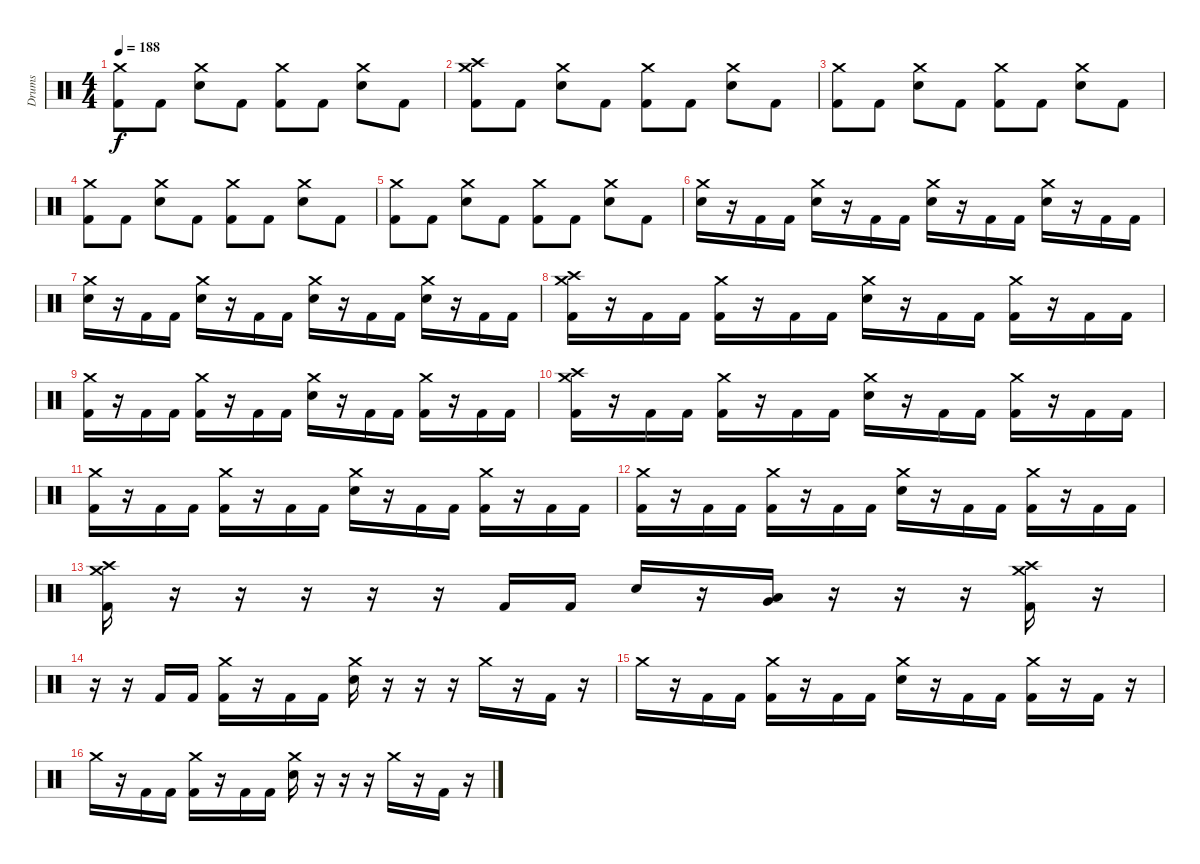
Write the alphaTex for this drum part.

\track ("Drums" "Drums") {instrument percussion}
\staff {score}
\articulation defaults
\ts (4 4)
\tempo 188
\clef neutral
\ks c
("Crash medium (hit)" "Kick (hit) 2").8{dy f} "Kick (hit) 2".8 ("Crash medium (hit)" "Snare (hit) 2").8 "Kick (hit) 2".8 ("Crash medium (hit)" "Kick (hit) 2").8 "Kick (hit) 2".8 ("Crash medium (hit)" "Snare (hit) 2").8 "Kick (hit) 2".8 |
("Crash medium (hit)" "Crash high (hit)" "Kick (hit) 2").8 "Kick (hit) 2".8 ("Crash medium (hit)" "Snare (hit) 2").8 "Kick (hit) 2".8 ("Crash medium (hit)" "Kick (hit) 2").8 "Kick (hit) 2".8 ("Crash medium (hit)" "Snare (hit) 2").8 "Kick (hit) 2".8 |
("Crash medium (hit)" "Kick (hit) 2").8 "Kick (hit) 2".8 ("Crash medium (hit)" "Snare (hit) 2").8 "Kick (hit) 2".8 ("Crash medium (hit)" "Kick (hit) 2").8 "Kick (hit) 2".8 ("Crash medium (hit)" "Snare (hit) 2").8 "Kick (hit) 2".8 |
("Crash medium (hit)" "Kick (hit) 2").8 "Kick (hit) 2".8 ("Crash medium (hit)" "Snare (hit) 2").8 "Kick (hit) 2".8 ("Crash medium (hit)" "Kick (hit) 2").8 "Kick (hit) 2".8 ("Crash medium (hit)" "Snare (hit) 2").8 "Kick (hit) 2".8 |
("Crash medium (hit)" "Kick (hit) 2").8 "Kick (hit) 2".8 ("Crash medium (hit)" "Snare (hit) 2").8 "Kick (hit) 2".8 ("Crash medium (hit)" "Kick (hit) 2").8 "Kick (hit) 2".8 ("Crash medium (hit)" "Snare (hit) 2").8 "Kick (hit) 2".8 |
("Crash medium (hit)" "Snare (hit) 2").16 r.16 "Kick (hit) 2".16 "Kick (hit) 2".16 ("Crash medium (hit)" "Snare (hit) 2").16 r.16 "Kick (hit) 2".16 "Kick (hit) 2".16 ("Crash medium (hit)" "Snare (hit) 2").16 r.16 "Kick (hit) 2".16 "Kick (hit) 2".16 ("Crash medium (hit)" "Snare (hit) 2").16 r.16 "Kick (hit) 2".16 "Kick (hit) 2".16 |
("Crash medium (hit)" "Snare (hit) 2").16 r.16 "Kick (hit) 2".16 "Kick (hit) 2".16 ("Crash medium (hit)" "Snare (hit) 2").16 r.16 "Kick (hit) 2".16 "Kick (hit) 2".16 ("Crash medium (hit)" "Snare (hit) 2").16 r.16 "Kick (hit) 2".16 "Kick (hit) 2".16 ("Crash medium (hit)" "Snare (hit) 2").16 r.16 "Kick (hit) 2".16 "Kick (hit) 2".16 |
("Crash medium (hit)" "Crash high (hit)" "Kick (hit) 2").16 r.16 "Kick (hit) 2".16 "Kick (hit) 2".16 ("Crash medium (hit)" "Kick (hit) 2").16 r.16 "Kick (hit) 2".16 "Kick (hit) 2".16 ("Crash medium (hit)" "Snare (hit) 2").16 r.16 "Kick (hit) 2".16 "Kick (hit) 2".16 ("Crash medium (hit)" "Kick (hit) 2").16 r.16 "Kick (hit) 2".16 "Kick (hit) 2".16 |
("Crash medium (hit)" "Kick (hit) 2").16 r.16 "Kick (hit) 2".16 "Kick (hit) 2".16 ("Crash medium (hit)" "Kick (hit) 2").16 r.16 "Kick (hit) 2".16 "Kick (hit) 2".16 ("Crash medium (hit)" "Snare (hit) 2").16 r.16 "Kick (hit) 2".16 "Kick (hit) 2".16 ("Crash medium (hit)" "Kick (hit) 2").16 r.16 "Kick (hit) 2".16 "Kick (hit) 2".16 |
("Crash medium (hit)" "Crash high (hit)" "Kick (hit) 2").16 r.16 "Kick (hit) 2".16 "Kick (hit) 2".16 ("Crash medium (hit)" "Kick (hit) 2").16 r.16 "Kick (hit) 2".16 "Kick (hit) 2".16 ("Crash medium (hit)" "Snare (hit) 2").16 r.16 "Kick (hit) 2".16 "Kick (hit) 2".16 ("Crash medium (hit)" "Kick (hit) 2").16 r.16 "Kick (hit) 2".16 "Kick (hit) 2".16 |
("Crash medium (hit)" "Kick (hit) 2").16 r.16 "Kick (hit) 2".16 "Kick (hit) 2".16 ("Crash medium (hit)" "Kick (hit) 2").16 r.16 "Kick (hit) 2".16 "Kick (hit) 2".16 ("Crash medium (hit)" "Snare (hit) 2").16 r.16 "Kick (hit) 2".16 "Kick (hit) 2".16 ("Crash medium (hit)" "Kick (hit) 2").16 r.16 "Kick (hit) 2".16 "Kick (hit) 2".16 |
("Crash medium (hit)" "Kick (hit) 2").16 r.16 "Kick (hit) 2".16 "Kick (hit) 2".16 ("Crash medium (hit)" "Kick (hit) 2").16 r.16 "Kick (hit) 2".16 "Kick (hit) 2".16 ("Crash medium (hit)" "Snare (hit) 2").16 r.16 "Kick (hit) 2".16 "Kick (hit) 2".16 ("Crash medium (hit)" "Kick (hit) 2").16 r.16 "Kick (hit) 2".16 "Kick (hit) 2".16 |
("Crash medium (hit)" "Crash high (hit)" "Kick (hit) 2").16 r.16 r.16 r.16 r.16 r.16 "Kick (hit) 2".16 "Kick (hit) 2".16 "Snare (hit) 2".16 r.16 ("Low Tom (hit)" "Very Low Tom (hit)").16 r.16 r.16 r.16 ("Crash medium (hit)" "Crash high (hit)" "Kick (hit) 2").16 r.16 |
r.16 r.16 "Kick (hit) 2".16 "Kick (hit) 2".16 ("Crash medium (hit)" "Kick (hit) 2").16 r.16 "Kick (hit) 2".16 "Kick (hit) 2".16 ("Crash medium (hit)" "Snare (hit) 2").16 r.16 r.16 r.16 "Crash medium (hit)".16 r.16 "Kick (hit) 2".16 r.16 |
"Crash medium (hit)".16 r.16 "Kick (hit) 2".16 "Kick (hit) 2".16 ("Crash medium (hit)" "Kick (hit) 2").16 r.16 "Kick (hit) 2".16 "Kick (hit) 2".16 ("Crash medium (hit)" "Snare (hit) 2").16 r.16 "Kick (hit) 2".16 "Kick (hit) 2".16 ("Crash medium (hit)" "Kick (hit) 2").16 r.16 "Kick (hit) 2".16 r.16 |
"Crash medium (hit)".16 r.16 "Kick (hit) 2".16 "Kick (hit) 2".16 ("Crash medium (hit)" "Kick (hit) 2").16 r.16 "Kick (hit) 2".16 "Kick (hit) 2".16 ("Crash medium (hit)" "Snare (hit) 2").16 r.16 r.16 r.16 "Crash medium (hit)".16 r.16 "Kick (hit) 2".16 r.16
